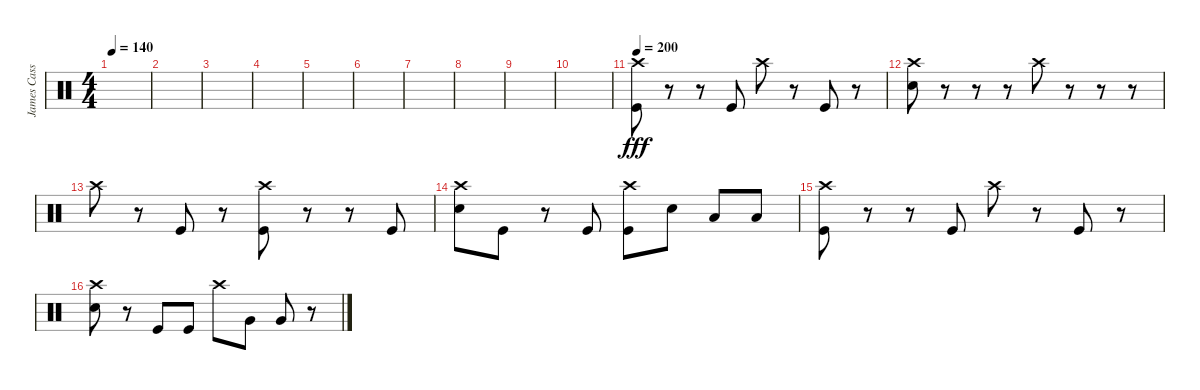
\track ("James Cassells" "James Cass") {instrument percussion}
\staff {score}
\articulation defaults
\ts (4 4)
\tempo 140
\clef neutral
\ks c
|
|
|
|
|
|
|
|
|
|
\tempo 200
("Crash high (hit)" "Kick (hit)").8{dy fff} r.8 r.8 "Kick (hit)".8 "Crash high (hit)".8 r.8 "Kick (hit)".8 r.8 |
("Crash high (hit)" "Electric Snare (hit)").8 r.8 r.8 r.8 "Crash high (hit)".8 r.8 r.8 r.8 |
"Crash high (hit)".8 r.8 "Kick (hit)".8 r.8 ("Crash high (hit)" "Kick (hit)").8 r.8 r.8 "Kick (hit)".8 |
("Crash high (hit)" "Electric Snare (hit)").8 "Kick (hit)".8 r.8 "Kick (hit)".8 ("Crash high (hit)" "Kick (hit)").8 "Electric Snare (hit)".8 "Low Tom (hit)".8 "Low Tom (hit)".8 |
("Crash high (hit)" "Kick (hit)").8 r.8 r.8 "Kick (hit)".8 "Crash high (hit)".8 r.8 "Kick (hit)".8 r.8 |
("Crash high (hit)" "Electric Snare (hit)").8 r.8 "Kick (hit)".8 "Kick (hit)".8 "Crash high (hit)".8 "Very Low Tom (hit)".8 "Very Low Tom (hit)".8 r.8
